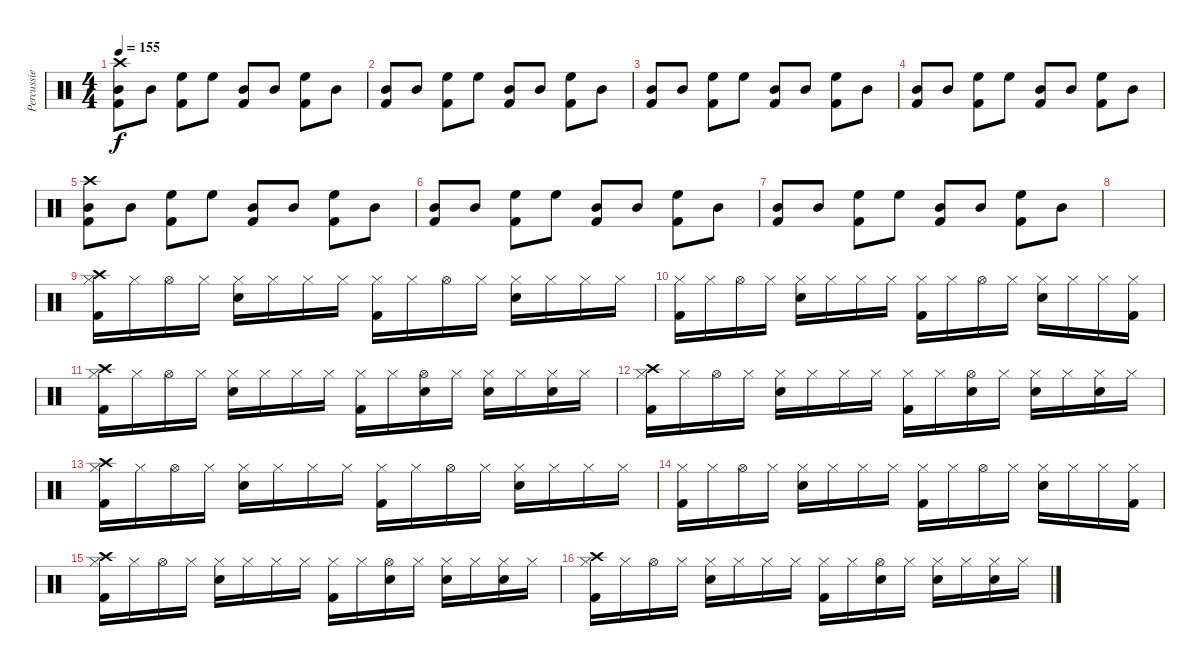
\track ("Percussie" "Percussie") {instrument percussion}
\staff {score}
\articulation defaults
\ts (4 4)
\tempo 155
\clef neutral
\ks c
("Mid Tom (hit)" "Kick (hit) 2" "Crash high (hit)").8{dy f} "Mid Tom (hit)".8 ("High Floor Tom (hit)" "Kick (hit) 2").8 "High Floor Tom (hit)".8 ("Mid Tom (hit)" "Kick (hit) 2").8 "Mid Tom (hit)".8 ("High Floor Tom (hit)" "Kick (hit) 2").8 "Mid Tom (hit)".8 |
("Mid Tom (hit)" "Kick (hit) 2").8 "Mid Tom (hit)".8 ("High Floor Tom (hit)" "Kick (hit) 2").8 "High Floor Tom (hit)".8 ("Mid Tom (hit)" "Kick (hit) 2").8 "Mid Tom (hit)".8 ("High Floor Tom (hit)" "Kick (hit) 2").8 "Mid Tom (hit)".8 |
("Mid Tom (hit)" "Kick (hit) 2").8 "Mid Tom (hit)".8 ("High Floor Tom (hit)" "Kick (hit) 2").8 "High Floor Tom (hit)".8 ("Mid Tom (hit)" "Kick (hit) 2").8 "Mid Tom (hit)".8 ("High Floor Tom (hit)" "Kick (hit) 2").8 "Mid Tom (hit)".8 |
("Mid Tom (hit)" "Kick (hit) 2").8 "Mid Tom (hit)".8 ("High Floor Tom (hit)" "Kick (hit) 2").8 "High Floor Tom (hit)".8 ("Mid Tom (hit)" "Kick (hit) 2").8 "Mid Tom (hit)".8 ("High Floor Tom (hit)" "Kick (hit) 2").8 "Mid Tom (hit)".8 |
("Mid Tom (hit)" "Kick (hit) 2" "Crash high (hit)").8 "Mid Tom (hit)".8 ("High Floor Tom (hit)" "Kick (hit) 2").8 "High Floor Tom (hit)".8 ("Mid Tom (hit)" "Kick (hit) 2").8 "Mid Tom (hit)".8 ("High Floor Tom (hit)" "Kick (hit) 2").8 "Mid Tom (hit)".8 |
("Mid Tom (hit)" "Kick (hit) 2").8 "Mid Tom (hit)".8 ("High Floor Tom (hit)" "Kick (hit) 2").8 "High Floor Tom (hit)".8 ("Mid Tom (hit)" "Kick (hit) 2").8 "Mid Tom (hit)".8 ("High Floor Tom (hit)" "Kick (hit) 2").8 "Mid Tom (hit)".8 |
("Mid Tom (hit)" "Kick (hit) 2").8 "Mid Tom (hit)".8 ("High Floor Tom (hit)" "Kick (hit) 2").8 "High Floor Tom (hit)".8 ("Mid Tom (hit)" "Kick (hit) 2").8 "Mid Tom (hit)".8 ("High Floor Tom (hit)" "Kick (hit) 2").8 "Mid Tom (hit)".8 |
|
("Kick (hit) 2" "Hi-Hat (closed)" "Crash high (hit)").16 "Hi-Hat (closed)".16 "Hi-Hat (open)".16 "Hi-Hat (closed)".16 ("Electric Snare (hit)" "Hi-Hat (closed)").16 "Hi-Hat (closed)".16 "Hi-Hat (closed)".16 "Hi-Hat (closed)".16 ("Kick (hit) 2" "Hi-Hat (closed)").16 "Hi-Hat (closed)".16 "Hi-Hat (open)".16 "Hi-Hat (closed)".16 ("Electric Snare (hit)" "Hi-Hat (closed)").16 "Hi-Hat (closed)".16 "Hi-Hat (closed)".16 "Hi-Hat (closed)".16 |
("Kick (hit) 2" "Hi-Hat (closed)").16 "Hi-Hat (closed)".16 "Hi-Hat (open)".16 "Hi-Hat (closed)".16 ("Electric Snare (hit)" "Hi-Hat (closed)").16 "Hi-Hat (closed)".16 "Hi-Hat (closed)".16 "Hi-Hat (closed)".16 ("Kick (hit) 2" "Hi-Hat (closed)").16 "Hi-Hat (closed)".16 "Hi-Hat (open)".16 "Hi-Hat (closed)".16 ("Electric Snare (hit)" "Hi-Hat (closed)").16 "Hi-Hat (closed)".16 "Hi-Hat (closed)".16 ("Kick (hit) 2" "Hi-Hat (closed)").16 |
("Kick (hit) 2" "Hi-Hat (closed)" "Crash high (hit)").16 "Hi-Hat (closed)".16 "Hi-Hat (open)".16 "Hi-Hat (closed)".16 ("Electric Snare (hit)" "Hi-Hat (closed)").16 "Hi-Hat (closed)".16 "Hi-Hat (closed)".16 "Hi-Hat (closed)".16 ("Kick (hit) 2" "Hi-Hat (closed)").16 "Hi-Hat (closed)".16 ("Electric Snare (hit)" "Hi-Hat (open)").16 "Hi-Hat (closed)".16 ("Electric Snare (hit)" "Hi-Hat (closed)").16 "Hi-Hat (closed)".16 ("Electric Snare (hit)" "Hi-Hat (closed)").16 "Hi-Hat (closed)".16 |
("Kick (hit) 2" "Hi-Hat (closed)" "Crash high (hit)").16 "Hi-Hat (closed)".16 "Hi-Hat (open)".16 "Hi-Hat (closed)".16 ("Electric Snare (hit)" "Hi-Hat (closed)").16 "Hi-Hat (closed)".16 "Hi-Hat (closed)".16 "Hi-Hat (closed)".16 ("Kick (hit) 2" "Hi-Hat (closed)").16 "Hi-Hat (closed)".16 ("Electric Snare (hit)" "Hi-Hat (open)").16 "Hi-Hat (closed)".16 ("Electric Snare (hit)" "Hi-Hat (closed)").16 "Hi-Hat (closed)".16 ("Electric Snare (hit)" "Hi-Hat (closed)").16 "Hi-Hat (closed)".16 |
("Kick (hit) 2" "Hi-Hat (closed)" "Crash high (hit)").16 "Hi-Hat (closed)".16 "Hi-Hat (open)".16 "Hi-Hat (closed)".16 ("Electric Snare (hit)" "Hi-Hat (closed)").16 "Hi-Hat (closed)".16 "Hi-Hat (closed)".16 "Hi-Hat (closed)".16 ("Kick (hit) 2" "Hi-Hat (closed)").16 "Hi-Hat (closed)".16 "Hi-Hat (open)".16 "Hi-Hat (closed)".16 ("Electric Snare (hit)" "Hi-Hat (closed)").16 "Hi-Hat (closed)".16 "Hi-Hat (closed)".16 "Hi-Hat (closed)".16 |
("Kick (hit) 2" "Hi-Hat (closed)").16 "Hi-Hat (closed)".16 "Hi-Hat (open)".16 "Hi-Hat (closed)".16 ("Electric Snare (hit)" "Hi-Hat (closed)").16 "Hi-Hat (closed)".16 "Hi-Hat (closed)".16 "Hi-Hat (closed)".16 ("Kick (hit) 2" "Hi-Hat (closed)").16 "Hi-Hat (closed)".16 "Hi-Hat (open)".16 "Hi-Hat (closed)".16 ("Electric Snare (hit)" "Hi-Hat (closed)").16 "Hi-Hat (closed)".16 "Hi-Hat (closed)".16 ("Kick (hit) 2" "Hi-Hat (closed)").16 |
("Kick (hit) 2" "Hi-Hat (closed)" "Crash high (hit)").16 "Hi-Hat (closed)".16 "Hi-Hat (open)".16 "Hi-Hat (closed)".16 ("Electric Snare (hit)" "Hi-Hat (closed)").16 "Hi-Hat (closed)".16 "Hi-Hat (closed)".16 "Hi-Hat (closed)".16 ("Kick (hit) 2" "Hi-Hat (closed)").16 "Hi-Hat (closed)".16 ("Electric Snare (hit)" "Hi-Hat (open)").16 "Hi-Hat (closed)".16 ("Electric Snare (hit)" "Hi-Hat (closed)").16 "Hi-Hat (closed)".16 ("Electric Snare (hit)" "Hi-Hat (closed)").16 "Hi-Hat (closed)".16 |
("Kick (hit) 2" "Hi-Hat (closed)" "Crash high (hit)").16 "Hi-Hat (closed)".16 "Hi-Hat (open)".16 "Hi-Hat (closed)".16 ("Electric Snare (hit)" "Hi-Hat (closed)").16 "Hi-Hat (closed)".16 "Hi-Hat (closed)".16 "Hi-Hat (closed)".16 ("Kick (hit) 2" "Hi-Hat (closed)").16 "Hi-Hat (closed)".16 ("Electric Snare (hit)" "Hi-Hat (open)").16 "Hi-Hat (closed)".16 ("Electric Snare (hit)" "Hi-Hat (closed)").16 "Hi-Hat (closed)".16 ("Electric Snare (hit)" "Hi-Hat (closed)").16 "Hi-Hat (closed)".16
